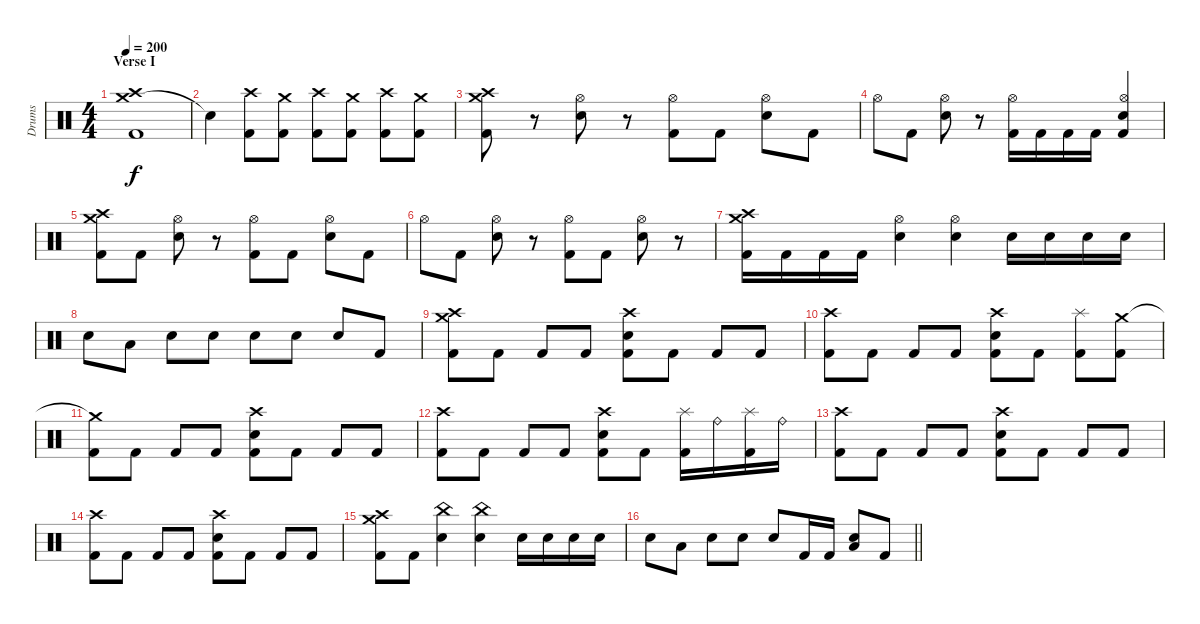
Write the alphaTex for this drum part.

\track ("Drums" "Drums") {instrument percussion}
\staff {score}
\articulation defaults
\ts (4 4)
\section ("" "Verse I")
\tempo 200
\clef neutral
\ks c
("Crash medium (hit)" "Crash high (hit)" "Kick (hit) 2").1{dy f} |
"Snare (hit)"{t}.4 ("Crash high (hit)" "Kick (hit) 2").8 ("Crash medium (hit)" "Kick (hit) 2").8 ("Crash high (hit)" "Kick (hit) 2").8 ("Crash medium (hit)" "Kick (hit) 2").8 ("Crash high (hit)" "Kick (hit) 2").8 ("Crash medium (hit)" "Kick (hit) 2").8 |
("Crash medium (hit)" "Crash high (hit)" "Kick (hit) 2").8 r.8 ("Hi-Hat (open)" "Electric Snare (hit)").8 r.8 ("Hi-Hat (open)" "Kick (hit) 2").8 "Kick (hit) 2".8 ("Hi-Hat (open)" "Electric Snare (hit)").8 "Kick (hit) 2".8 |
"Hi-Hat (open)".8 "Kick (hit) 2".8 ("Hi-Hat (open)" "Electric Snare (hit)").8 r.8 ("Hi-Hat (open)" "Kick (hit) 2").16 "Kick (hit) 2".16 "Kick (hit) 2".16 "Kick (hit) 2".16 ("Hi-Hat (open)" "Electric Snare (hit)" "Kick (hit) 2").4 |
("Crash medium (hit)" "Crash high (hit)" "Kick (hit) 2").8 "Kick (hit) 2".8 ("Hi-Hat (open)" "Electric Snare (hit)").8 r.8 ("Hi-Hat (open)" "Kick (hit) 2").8 "Kick (hit) 2".8 ("Hi-Hat (open)" "Electric Snare (hit)").8 "Kick (hit) 2".8 |
"Hi-Hat (open)".8 "Kick (hit) 2".8 ("Hi-Hat (open)" "Electric Snare (hit)").8 r.8 ("Hi-Hat (open)" "Kick (hit) 2").8 "Kick (hit) 2".8 ("Hi-Hat (open)" "Electric Snare (hit)").8 r.8 |
("Crash high (hit)" "Crash medium (hit)" "Kick (hit) 2").16 "Kick (hit) 2".16 "Kick (hit) 2".16 "Kick (hit) 2".16 ("Hi-Hat (open)" "Electric Snare (hit)").4 ("Hi-Hat (open)" "Electric Snare (hit)").4 "Electric Snare (hit)".16 "Electric Snare (hit)".16 "Electric Snare (hit)".16 "Electric Snare (hit)".16 |
"Electric Snare (hit)".8 "Low Tom (hit)".8 "Electric Snare (hit)".8 "Electric Snare (hit)".8 "Electric Snare (hit)".8 "Electric Snare (hit)".8 "Electric Snare (hit)".8 "Kick (hit) 2".8 |
("Crash high (hit)" "Crash medium (hit)" "Kick (hit) 2").8 "Kick (hit) 2".8 "Kick (hit) 2".8 "Kick (hit) 2".8 ("Crash high (hit)" "Electric Snare (hit)" "Kick (hit) 2").8 "Kick (hit) 2".8 "Kick (hit) 2".8 "Kick (hit) 2".8 |
("Crash high (hit)" "Kick (hit) 2").8 "Kick (hit) 2".8 "Kick (hit) 2".8 "Kick (hit) 2".8 ("Crash high (hit)" "Electric Snare (hit)" "Kick (hit) 2").8 "Kick (hit) 2".8 ("Splash (hit)" "Kick (hit) 2").8 ("Crash medium (hit)" "Kick (hit) 2").8 |
("Crash medium (hit)"{t} "Kick (hit) 2").8 "Kick (hit) 2".8 "Kick (hit) 2".8 "Kick (hit) 2".8 ("Crash high (hit)" "Electric Snare (hit)" "Kick (hit) 2").8 "Kick (hit) 2".8 "Kick (hit) 2".8 "Kick (hit) 2".8 |
("Crash high (hit)" "Kick (hit) 2").8 "Kick (hit) 2".8 "Kick (hit) 2".8 "Kick (hit) 2".8 ("Crash high (hit)" "Electric Snare (hit)" "Kick (hit) 2").8 "Kick (hit) 2".8 ("Splash (hit)" "Kick (hit) 2").16 "Ride (bell)".16 ("Splash (hit)" "Kick (hit) 2").16 "Ride (bell)".16 |
("Crash high (hit)" "Kick (hit) 2").8 "Kick (hit) 2".8 "Kick (hit) 2".8 "Kick (hit) 2".8 ("Crash high (hit)" "Electric Snare (hit)" "Kick (hit) 2").8 "Kick (hit) 2".8 "Kick (hit) 2".8 "Kick (hit) 2".8 |
("Crash high (hit)" "Kick (hit) 2").8 "Kick (hit) 2".8 "Kick (hit) 2".8 "Kick (hit) 2".8 ("Crash high (hit)" "Electric Snare (hit)" "Kick (hit) 2").8 "Kick (hit) 2".8 "Kick (hit) 2".8 "Kick (hit) 2".8 |
("Crash high (hit)" "Crash medium (hit)" "Kick (hit) 2").8 "Kick (hit) 2".8 ("China (hit)" "Electric Snare (hit)").4 ("China (hit)" "Electric Snare (hit)").4 "Electric Snare (hit)".16 "Electric Snare (hit)".16 "Electric Snare (hit)".16 "Electric Snare (hit)".16 |
\barLineRight lightlight "Electric Snare (hit)".8 "Low Tom (hit)".8 "Electric Snare (hit)".8 "Electric Snare (hit)".8 "Electric Snare (hit)".8 "Kick (hit) 2".16 "Kick (hit) 2".16
("Electric Snare (hit)" "Low Floor Tom (hit)").8 "Kick (hit) 2".8
